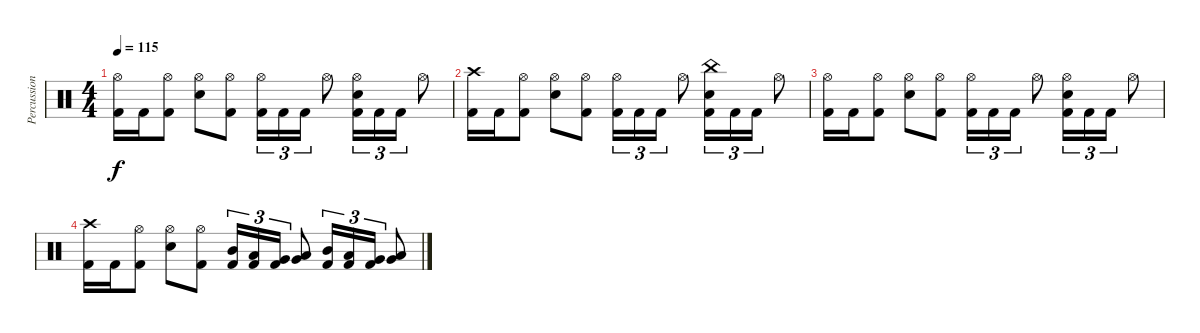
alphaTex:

\track ("Percussion" "Percussion") {instrument percussion}
\staff {score}
\articulation defaults
\ts (4 4)
\tempo 115
\clef neutral
\ks c
("Hi-Hat (open)" "Kick (hit) 2").16{dy f} "Kick (hit) 2".16 ("Hi-Hat (open)" "Kick (hit) 2").8 ("Hi-Hat (open)" "Snare (hit) 2").8 ("Hi-Hat (open)" "Kick (hit) 2").8 ("Hi-Hat (open)" "Kick (hit) 2").16{tu (3 2)} "Kick (hit) 2".16{tu (3 2)} "Kick (hit) 2".16{tu (3 2)} "Hi-Hat (open)".8 ("Hi-Hat (open)" "Snare (hit) 2" "Kick (hit) 2").16{tu (3 2)} "Kick (hit) 2".16{tu (3 2)} "Kick (hit) 2".16{tu (3 2)} "Hi-Hat (open)".8 |
("Crash high (hit)" "Kick (hit) 2").16 "Kick (hit) 2".16 ("Hi-Hat (open)" "Kick (hit) 2").8 ("Hi-Hat (open)" "Snare (hit) 2").8 ("Hi-Hat (open)" "Kick (hit) 2").8 ("Hi-Hat (open)" "Kick (hit) 2").16{tu (3 2)} "Kick (hit) 2".16{tu (3 2)} "Kick (hit) 2".16{tu (3 2)} "Hi-Hat (open)".8 ("China (hit)" "Snare (hit) 2" "Kick (hit) 2").16{tu (3 2)} "Kick (hit) 2".16{tu (3 2)} "Kick (hit) 2".16{tu (3 2)} "Hi-Hat (open)".8 |
("Hi-Hat (open)" "Kick (hit) 2").16 "Kick (hit) 2".16 ("Hi-Hat (open)" "Kick (hit) 2").8 ("Hi-Hat (open)" "Snare (hit) 2").8 ("Hi-Hat (open)" "Kick (hit) 2").8 ("Hi-Hat (open)" "Kick (hit) 2").16{tu (3 2)} "Kick (hit) 2".16{tu (3 2)} "Kick (hit) 2".16{tu (3 2)} "Hi-Hat (open)".8 ("Hi-Hat (open)" "Snare (hit) 2" "Kick (hit) 2").16{tu (3 2)} "Kick (hit) 2".16{tu (3 2)} "Kick (hit) 2".16{tu (3 2)} "Hi-Hat (open)".8 |
("Crash high (hit)" "Kick (hit) 2").16 "Kick (hit) 2".16 ("Hi-Hat (open)" "Kick (hit) 2").8 ("Hi-Hat (open)" "Snare (hit) 2").8 ("Hi-Hat (open)" "Kick (hit) 2").8 ("Mid Tom (hit)" "Kick (hit) 2").16{tu (3 2)} ("Low Tom (hit)" "Kick (hit) 2").16{tu (3 2)} ("Very Low Tom (hit)" "Kick (hit) 2").16{tu (3 2)} ("Low Floor Tom (hit)" "Very Low Tom (hit)").8 ("Mid Tom (hit)" "Kick (hit) 2").16{tu (3 2)} ("Low Tom (hit)" "Kick (hit) 2").16{tu (3 2)} ("Very Low Tom (hit)" "Kick (hit) 2").16{tu (3 2)} ("Low Floor Tom (hit)" "Very Low Tom (hit)").8
